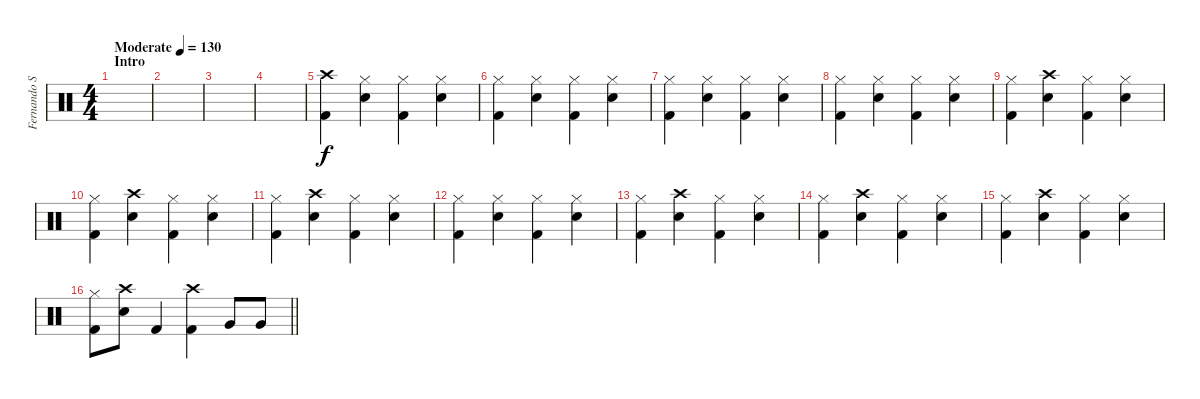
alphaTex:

\track ("Fernando Scarcella" "Fernando S") {instrument percussion}
\staff {score}
\articulation defaults
\ts (4 4)
\section ("" "Intro")
\tempo (130 "Moderate")
\clef neutral
\ks c
|
|
|
|
("Crash high (hit)" "Kick (hit) 2").4 ("Hi-Hat (closed)" "Snare (hit) 2").4 ("Hi-Hat (closed)" "Kick (hit) 2").4 ("Hi-Hat (closed)" "Snare (hit) 2").4 |
("Hi-Hat (closed)" "Kick (hit) 2").4 ("Hi-Hat (closed)" "Snare (hit) 2").4 ("Hi-Hat (closed)" "Kick (hit) 2").4 ("Hi-Hat (closed)" "Snare (hit) 2").4 |
("Hi-Hat (closed)" "Kick (hit) 2").4 ("Hi-Hat (closed)" "Snare (hit) 2").4 ("Hi-Hat (closed)" "Kick (hit) 2").4 ("Hi-Hat (closed)" "Snare (hit) 2").4 |
("Hi-Hat (closed)" "Kick (hit) 2").4 ("Hi-Hat (closed)" "Snare (hit) 2").4 ("Hi-Hat (closed)" "Kick (hit) 2").4 ("Hi-Hat (closed)" "Snare (hit) 2").4 |
("Hi-Hat (closed)" "Kick (hit) 2").4 ("Crash high (hit)" "Snare (hit) 2").4 ("Hi-Hat (closed)" "Kick (hit) 2").4 ("Hi-Hat (closed)" "Snare (hit) 2").4 |
("Hi-Hat (closed)" "Kick (hit) 2").4 ("Crash high (hit)" "Snare (hit) 2").4 ("Hi-Hat (closed)" "Kick (hit) 2").4 ("Hi-Hat (closed)" "Snare (hit) 2").4 |
("Hi-Hat (closed)" "Kick (hit) 2").4 ("Crash high (hit)" "Snare (hit) 2").4 ("Hi-Hat (closed)" "Kick (hit) 2").4 ("Hi-Hat (closed)" "Snare (hit) 2").4 |
("Hi-Hat (closed)" "Kick (hit) 2").4 ("Hi-Hat (closed)" "Snare (hit) 2").4 ("Hi-Hat (closed)" "Kick (hit) 2").4 ("Hi-Hat (closed)" "Snare (hit) 2").4 |
("Hi-Hat (closed)" "Kick (hit) 2").4 ("Crash high (hit)" "Snare (hit) 2").4 ("Hi-Hat (closed)" "Kick (hit) 2").4 ("Hi-Hat (closed)" "Snare (hit) 2").4 |
("Hi-Hat (closed)" "Kick (hit) 2").4 ("Crash high (hit)" "Snare (hit) 2").4 ("Hi-Hat (closed)" "Kick (hit) 2").4 ("Hi-Hat (closed)" "Snare (hit) 2").4 |
("Hi-Hat (closed)" "Kick (hit) 2").4 ("Crash high (hit)" "Snare (hit) 2").4 ("Hi-Hat (closed)" "Kick (hit) 2").4 ("Hi-Hat (closed)" "Snare (hit) 2").4 |
\barLineRight lightlight
("Hi-Hat (closed)" "Kick (hit) 2").8 ("Crash high (hit)" "Snare (hit) 2").8 "Kick (hit) 2".4 ("Crash high (hit)" "Kick (hit) 2").4 "Very Low Tom (hit)".8 "Very Low Tom (hit)".8
